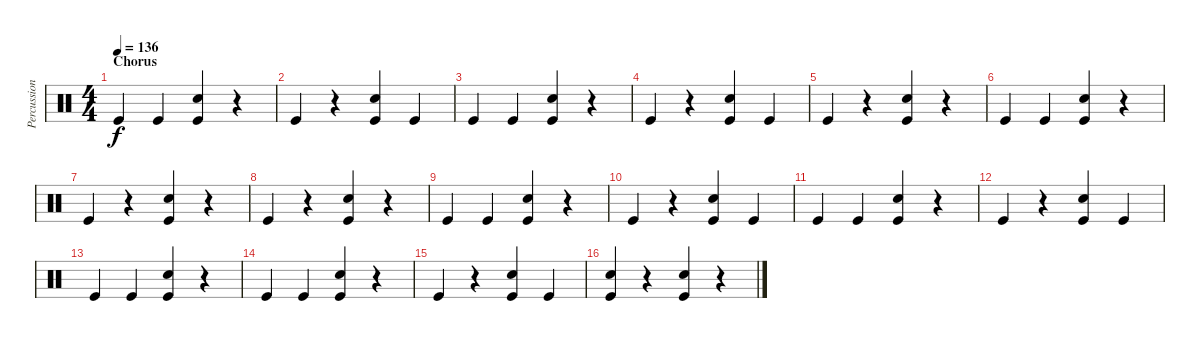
\track ("Percussion" "Percussion") {instrument percussion}
\staff {score}
\articulation defaults
\ts (4 4)
\section ("" "Chorus")
\tempo 136
\clef neutral
\ks c "Kick (hit)".4{dy f} "Kick (hit)".4
("Kick (hit)" "Electric Snare (hit)").4 r.4 |
"Kick (hit)".4 r.4 ("Kick (hit)" "Electric Snare (hit)").4 "Kick (hit)".4 |
"Kick (hit)".4 "Kick (hit)".4 ("Kick (hit)" "Electric Snare (hit)").4 r.4 |
"Kick (hit)".4 r.4 ("Kick (hit)" "Electric Snare (hit)").4 "Kick (hit)".4 |
"Kick (hit)".4 r.4 ("Kick (hit)" "Electric Snare (hit)").4 r.4 |
"Kick (hit)".4 "Kick (hit)".4 ("Kick (hit)" "Electric Snare (hit)").4 r.4 |
"Kick (hit)".4 r.4 ("Kick (hit)" "Electric Snare (hit)").4 r.4 |
"Kick (hit)".4 r.4 ("Kick (hit)" "Electric Snare (hit)").4 r.4 |
"Kick (hit)".4 "Kick (hit)".4 ("Kick (hit)" "Electric Snare (hit)").4 r.4 |
"Kick (hit)".4 r.4 ("Kick (hit)" "Electric Snare (hit)").4 "Kick (hit)".4 |
"Kick (hit)".4 "Kick (hit)".4 ("Kick (hit)" "Electric Snare (hit)").4 r.4 |
"Kick (hit)".4 r.4 ("Kick (hit)" "Electric Snare (hit)").4 "Kick (hit)".4 |
"Kick (hit)".4 "Kick (hit)".4 ("Kick (hit)" "Electric Snare (hit)").4 r.4 |
"Kick (hit)".4 "Kick (hit)".4 ("Kick (hit)" "Electric Snare (hit)").4 r.4 |
"Kick (hit)".4 r.4 ("Kick (hit)" "Electric Snare (hit)").4 "Kick (hit)".4 |
("Kick (hit)" "Electric Snare (hit)").4 r.4 ("Kick (hit)" "Electric Snare (hit)").4 r.4
